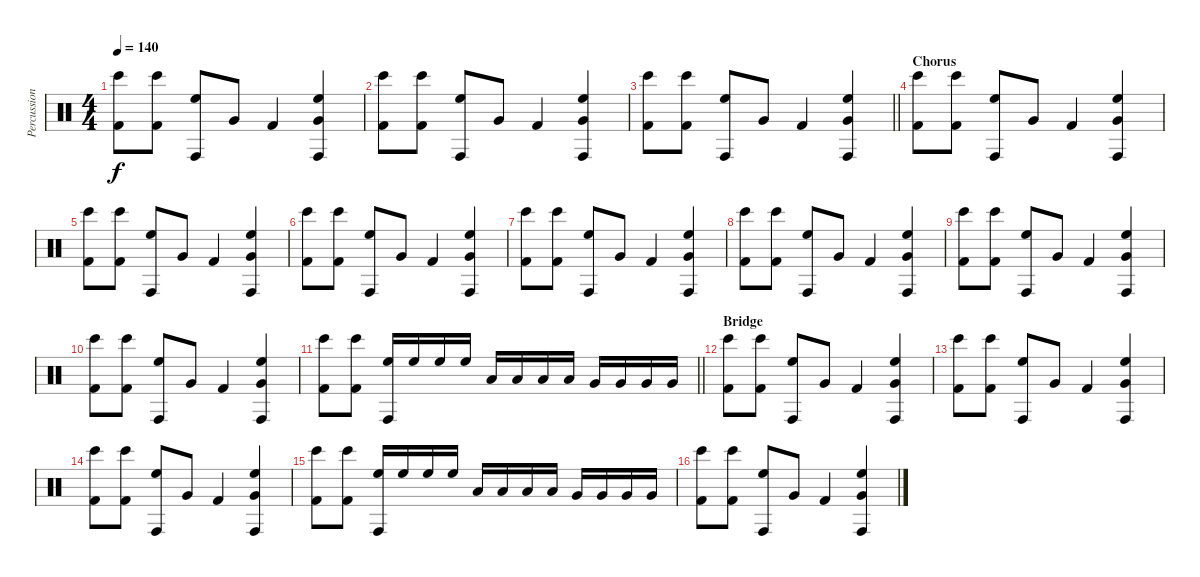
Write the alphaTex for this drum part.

\track ("Percussion" "Percussion") {instrument percussion}
\staff {score}
\articulation defaults
\ts (4 4)
\tempo 140
\clef neutral
\ks c
("Bongo High (hit)" "Kick (hit) 2").8{dy f} ("Bongo High (hit)" "Kick (hit) 2").8 ("Conga high (hit)" "High Floor Tom (hit)").8 "Very Low Tom (hit)".8 "Kick (hit) 2".4 ("Conga high (hit)" "High Floor Tom (hit)" "Very Low Tom (hit)").4 |
("Bongo High (hit)" "Kick (hit) 2").8 ("Bongo High (hit)" "Kick (hit) 2").8 ("Conga high (hit)" "High Floor Tom (hit)").8 "Very Low Tom (hit)".8 "Kick (hit) 2".4 ("Conga high (hit)" "High Floor Tom (hit)" "Very Low Tom (hit)").4 |
\barLineRight lightlight
("Bongo High (hit)" "Kick (hit) 2").8 ("Bongo High (hit)" "Kick (hit) 2").8 ("Conga high (hit)" "High Floor Tom (hit)").8 "Very Low Tom (hit)".8 "Kick (hit) 2".4 ("Conga high (hit)" "High Floor Tom (hit)" "Very Low Tom (hit)").4 |
\section ("" "Chorus")
("Bongo High (hit)" "Kick (hit) 2").8 ("Bongo High (hit)" "Kick (hit) 2").8 ("Conga high (hit)" "High Floor Tom (hit)").8 "Very Low Tom (hit)".8 "Kick (hit) 2".4 ("Conga high (hit)" "High Floor Tom (hit)" "Very Low Tom (hit)").4 |
("Bongo High (hit)" "Kick (hit) 2").8 ("Bongo High (hit)" "Kick (hit) 2").8 ("Conga high (hit)" "High Floor Tom (hit)").8 "Very Low Tom (hit)".8 "Kick (hit) 2".4 ("Conga high (hit)" "High Floor Tom (hit)" "Very Low Tom (hit)").4 |
("Bongo High (hit)" "Kick (hit) 2").8 ("Bongo High (hit)" "Kick (hit) 2").8 ("Conga high (hit)" "High Floor Tom (hit)").8 "Very Low Tom (hit)".8 "Kick (hit) 2".4 ("Conga high (hit)" "High Floor Tom (hit)" "Very Low Tom (hit)").4 |
("Bongo High (hit)" "Kick (hit) 2").8 ("Bongo High (hit)" "Kick (hit) 2").8 ("Conga high (hit)" "High Floor Tom (hit)").8 "Very Low Tom (hit)".8 "Kick (hit) 2".4 ("Conga high (hit)" "High Floor Tom (hit)" "Very Low Tom (hit)").4 |
("Bongo High (hit)" "Kick (hit) 2").8 ("Bongo High (hit)" "Kick (hit) 2").8 ("Conga high (hit)" "High Floor Tom (hit)").8 "Very Low Tom (hit)".8 "Kick (hit) 2".4 ("Conga high (hit)" "High Floor Tom (hit)" "Very Low Tom (hit)").4 |
("Bongo High (hit)" "Kick (hit) 2").8 ("Bongo High (hit)" "Kick (hit) 2").8 ("Conga high (hit)" "High Floor Tom (hit)").8 "Very Low Tom (hit)".8 "Kick (hit) 2".4 ("Conga high (hit)" "High Floor Tom (hit)" "Very Low Tom (hit)").4 |
("Bongo High (hit)" "Kick (hit) 2").8 ("Bongo High (hit)" "Kick (hit) 2").8 ("Conga high (hit)" "High Floor Tom (hit)").8 "Very Low Tom (hit)".8 "Kick (hit) 2".4 ("Conga high (hit)" "High Floor Tom (hit)" "Very Low Tom (hit)").4 |
\barLineRight lightlight
("Bongo High (hit)" "Kick (hit) 2").8 ("Bongo High (hit)" "Kick (hit) 2").8 ("Conga high (hit)" "High Floor Tom (hit)").16 "High Floor Tom (hit)".16 "High Floor Tom (hit)".16 "High Floor Tom (hit)".16 "Low Tom (hit)".16 "Low Tom (hit)".16 "Low Tom (hit)".16 "Low Tom (hit)".16 "Very Low Tom (hit)".16 "Very Low Tom (hit)".16 "Very Low Tom (hit)".16 "Very Low Tom (hit)".16 |
\section ("" "Bridge")
("Bongo High (hit)" "Kick (hit) 2").8 ("Bongo High (hit)" "Kick (hit) 2").8 ("Conga high (hit)" "High Floor Tom (hit)").8 "Very Low Tom (hit)".8 "Kick (hit) 2".4 ("Conga high (hit)" "High Floor Tom (hit)" "Very Low Tom (hit)").4 |
("Bongo High (hit)" "Kick (hit) 2").8 ("Bongo High (hit)" "Kick (hit) 2").8 ("Conga high (hit)" "High Floor Tom (hit)").8 "Very Low Tom (hit)".8 "Kick (hit) 2".4 ("Conga high (hit)" "High Floor Tom (hit)" "Very Low Tom (hit)").4 |
("Bongo High (hit)" "Kick (hit) 2").8 ("Bongo High (hit)" "Kick (hit) 2").8 ("Conga high (hit)" "High Floor Tom (hit)").8 "Very Low Tom (hit)".8 "Kick (hit) 2".4 ("Conga high (hit)" "High Floor Tom (hit)" "Very Low Tom (hit)").4 |
("Bongo High (hit)" "Kick (hit) 2").8 ("Bongo High (hit)" "Kick (hit) 2").8 ("Conga high (hit)" "High Floor Tom (hit)").16 "High Floor Tom (hit)".16 "High Floor Tom (hit)".16 "High Floor Tom (hit)".16 "Low Tom (hit)".16 "Low Tom (hit)".16 "Low Tom (hit)".16 "Low Tom (hit)".16 "Very Low Tom (hit)".16 "Very Low Tom (hit)".16 "Very Low Tom (hit)".16 "Very Low Tom (hit)".16 |
("Bongo High (hit)" "Kick (hit) 2").8 ("Bongo High (hit)" "Kick (hit) 2").8 ("Conga high (hit)" "High Floor Tom (hit)").8 "Very Low Tom (hit)".8 "Kick (hit) 2".4 ("Conga high (hit)" "High Floor Tom (hit)" "Very Low Tom (hit)").4
